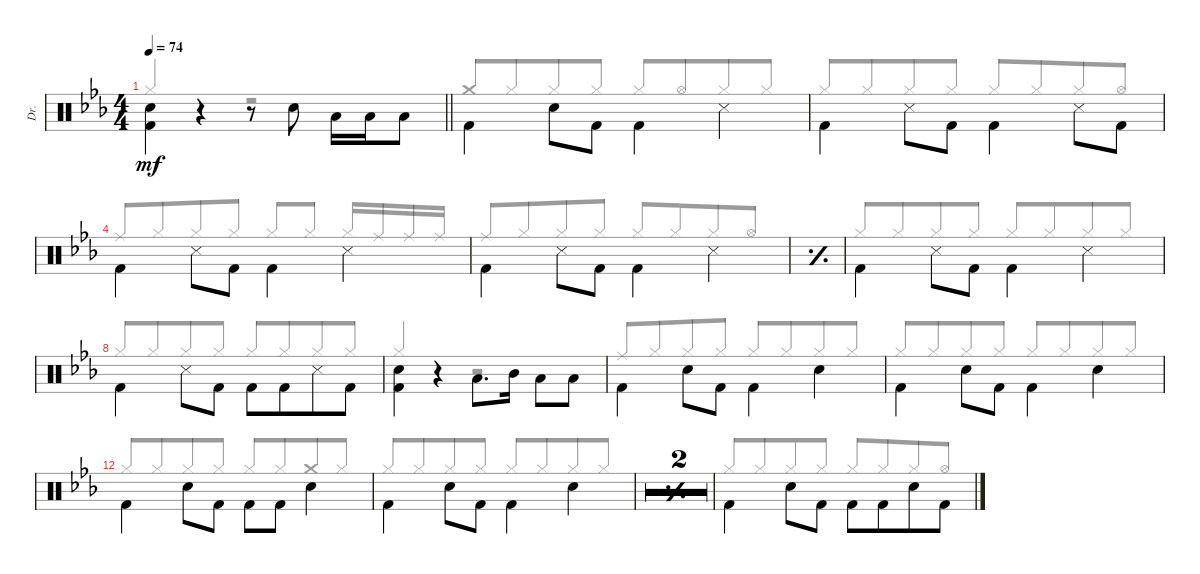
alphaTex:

\bracketExtendMode groupsimilarinstruments
\otherSystemsTrackNameOrientation horizontal
\defaultBarNumberDisplay FirstOfSystem
\track ("Drums" "Dr.") {multiBarRest instrument percussion}
\staff {score}
\articulation defaults
\voice
\ts (4 4)
\tempo 74
\clef neutral
\barLineRight lightlight
\ks eb
("Kick (hit) 2"{acc forcenatural} "Snare (hit) 2"{acc forcenatural}).4{dy mf beam Down} r.4{beam Down} r.8{beam Down} "Snare (hit) 2"{acc forcenatural}.8{beam Down} "Low Tom (hit)"{acc forcenatural}.16{beam Down} "Low Tom (hit)"{acc forcenatural}.16{beam Down} "Low Tom (hit)"{acc forcenatural}.8{beam Down} |
"Kick (hit) 2"{acc forcenatural}.4{beam Down} "Snare (hit) 2"{acc forcenatural}.8{beam Down} "Kick (hit) 2"{acc forcenatural}.8{beam Down} "Kick (hit) 2"{acc forcenatural}.4{beam Down} "Snare (side stick) 3"{acc forcenatural}.4{beam Down} |
"Kick (hit) 2"{acc forcenatural}.4{beam Down} "Snare (side stick) 3"{acc forcenatural}.8{beam Down} "Kick (hit) 2"{acc forcenatural}.8{beam Down} "Kick (hit) 2"{acc forcenatural}.4{beam Down} "Snare (side stick) 3"{acc forcenatural}.8{beam Down} "Kick (hit) 2"{acc forcenatural}.8{beam Down} |
"Kick (hit) 2"{acc forcenatural}.4{beam Down} "Snare (side stick) 3"{acc forcenatural}.8{beam Down} "Kick (hit) 2"{acc forcenatural}.8{beam Down} "Kick (hit) 2"{acc forcenatural}.4{beam Down} "Snare (side stick) 3"{acc forcenatural}.4{beam Down} |
"Kick (hit) 2"{acc forcenatural}.4{beam Down} "Snare (side stick) 3"{acc forcenatural}.8{beam Down} "Kick (hit) 2"{acc forcenatural}.8{beam Down} "Kick (hit) 2"{acc forcenatural}.4{beam Down} "Snare (side stick) 3"{acc forcenatural}.4{beam Down} |
\simile simple
|
\simile none "Kick (hit) 2"{acc forcenatural}.4{beam Down} "Snare (side stick) 3"{acc forcenatural}.8{beam Down} "Kick (hit) 2"{acc forcenatural}.8{beam Down} "Kick (hit) 2"{acc forcenatural}.4{beam Down} "Snare (side stick) 3"{acc forcenatural}.4{beam Down}
|
"Kick (hit) 2"{acc forcenatural}.4{beam Down} "Snare (side stick) 3"{acc forcenatural}.8{beam Down} "Kick (hit) 2"{acc forcenatural}.8{beam Down} "Kick (hit) 2"{acc forcenatural}.8{beam Down} "Kick (hit) 2"{acc forcenatural}.8{beam Down beam merge} "Snare (side stick) 3"{acc forcenatural}.8{beam Down} "Kick (hit) 2"{acc forcenatural}.8{beam Down} |
("Kick (hit) 2"{acc forcenatural} "Snare (hit) 2"{acc forcenatural}).4{beam Down} r.4{beam Down} "Low Tom (hit)"{acc forcenatural}.8{d beam Down} "Mid Tom (hit)"{acc forcenatural}.16{beam Down} "Low Tom (hit)"{acc forcenatural}.8{beam Down} "Low Tom (hit)"{acc forcenatural}.8{beam Down} |
"Kick (hit) 2"{acc forcenatural}.4{beam Down} "Snare (hit) 2"{acc forcenatural}.8{beam Down} "Kick (hit) 2"{acc forcenatural}.8{beam Down} "Kick (hit) 2"{acc forcenatural}.4{beam Down} "Snare (hit) 2"{acc forcenatural}.4{beam Down} |
"Kick (hit) 2"{acc forcenatural}.4{beam Down} "Snare (hit) 2"{acc forcenatural}.8{beam Down} "Kick (hit) 2"{acc forcenatural}.8{beam Down} "Kick (hit) 2"{acc forcenatural}.4{beam Down} "Snare (hit) 2"{acc forcenatural}.4{beam Down} |
"Kick (hit) 2"{acc forcenatural}.4{beam Down} "Snare (hit) 2"{acc forcenatural}.8{beam Down} "Kick (hit) 2"{acc forcenatural}.8{beam Down} "Kick (hit) 2"{acc forcenatural}.8{beam Down} "Kick (hit) 2"{acc forcenatural}.8{beam Down} "Snare (hit) 2"{acc forcenatural}.4{beam Down} |
"Kick (hit) 2"{acc forcenatural}.4{beam Down} "Snare (hit) 2"{acc forcenatural}.8{beam Down} "Kick (hit) 2"{acc forcenatural}.8{beam Down} "Kick (hit) 2"{acc forcenatural}.4{beam Down} "Snare (hit) 2"{acc forcenatural}.4{beam Down} |
\simile simple
|
|
\simile none "Kick (hit) 2"{acc forcenatural}.4{beam Down} "Snare (hit) 2"{acc forcenatural}.8{beam Down} "Kick (hit) 2"{acc forcenatural}.8{beam Down} "Kick (hit) 2"{acc forcenatural}.8{beam Down} "Kick (hit) 2"{acc forcenatural}.8{beam Down beam merge} "Snare (hit) 2"{acc forcenatural}.8{beam Down} "Kick (hit) 2"{acc forcenatural}.8{beam Down}
\voice
\clef neutral
\ottava regular
\simile none
\barLineRight lightlight
\ks eb "Hi-Hat (closed)"{acc forcenatural}.4{dy mf beam Up}
r.4{beam Down} r.2{beam Down} |
"Crash medium (hit)"{acc forcenatural}.8{beam Up} "Hi-Hat (closed)"{acc forcenatural}.8{beam Up beam merge} "Hi-Hat (closed)"{acc forcenatural}.8{beam Up} "Hi-Hat (closed)"{acc forcenatural}.8{beam Up} "Hi-Hat (closed)"{acc forcenatural}.8{beam Up} "Hi-Hat (open)"{acc forcenatural}.8{beam Up beam merge} "Hi-Hat (closed)"{acc forcenatural}.8{beam Up} "Hi-Hat (closed)"{acc forcenatural}.8{beam Up} |
"Hi-Hat (closed)"{acc forcenatural}.8{beam Up} "Hi-Hat (closed)"{acc forcenatural}.8{beam Up beam merge} "Hi-Hat (closed)"{acc forcenatural}.8{beam Up} "Hi-Hat (closed)"{acc forcenatural}.8{beam Up} "Hi-Hat (closed)"{acc forcenatural}.8{beam Up} "Hi-Hat (closed)"{acc forcenatural}.8{beam Up beam merge} "Hi-Hat (closed)"{acc forcenatural}.8{beam Up} "Hi-Hat (open)"{acc forcenatural}.8{beam Up} |
"Ride (middle)"{acc forcenatural}.8{beam Up beam merge} "Hi-Hat (closed)"{acc forcenatural}.8{beam Up beam merge} "Hi-Hat (closed)"{acc forcenatural}.8{beam Up} "Hi-Hat (closed)"{acc forcenatural}.8{beam Up} "Hi-Hat (closed)"{acc forcenatural}.8{beam Up} "Hi-Hat (closed)"{acc forcenatural}.8{beam Up beam split} "Hi-Hat (closed)"{acc forcenatural}.16{beam Up} "Ride (middle)"{acc forcenatural}.16{beam Up} "Ride (middle)"{acc forcenatural}.16{beam Up} "Ride (middle)"{acc forcenatural}.16{beam Up} |
"Ride (middle)"{acc forcenatural}.8{beam Up} "Hi-Hat (closed)"{acc forcenatural}.8{beam Up beam merge} "Hi-Hat (closed)"{acc forcenatural}.8{beam Up} "Hi-Hat (closed)"{acc forcenatural}.8{beam Up} "Hi-Hat (closed)"{acc forcenatural}.8{beam Up} "Hi-Hat (closed)"{acc forcenatural}.8{beam Up beam merge} "Hi-Hat (closed)"{acc forcenatural}.8{beam Up} "Hi-Hat (open)"{acc forcenatural}.8{beam Up} |
\simile simple
|
\simile none "Hi-Hat (closed)"{acc forcenatural}.8{beam Up} "Hi-Hat (closed)"{acc forcenatural}.8{beam Up beam merge} "Hi-Hat (closed)"{acc forcenatural}.8{beam Up} "Hi-Hat (closed)"{acc forcenatural}.8{beam Up} "Hi-Hat (closed)"{acc forcenatural}.8{beam Up} "Hi-Hat (closed)"{acc forcenatural}.8{beam Up beam merge} "Hi-Hat (closed)"{acc forcenatural}.8{beam Up beam merge} "Hi-Hat (closed)"{acc forcenatural}.8{beam Up}
|
"Hi-Hat (closed)"{acc forcenatural}.8{beam Up beam merge} "Hi-Hat (closed)"{acc forcenatural}.8{beam Up beam merge} "Hi-Hat (closed)"{acc forcenatural}.8{beam Up} "Hi-Hat (closed)"{acc forcenatural}.8{beam Up} "Hi-Hat (closed)"{acc forcenatural}.8{beam Up} "Hi-Hat (closed)"{acc forcenatural}.8{beam Up beam merge} "Hi-Hat (closed)"{acc forcenatural}.8{beam Up} "Hi-Hat (closed)"{acc forcenatural}.8{beam Up} |
"Hi-Hat (closed)"{acc forcenatural}.4{beam Up} r.4{beam Down} r.2{beam Up} |
"Ride (middle)"{acc forcenatural}.8{beam Up} "Hi-Hat (closed)"{acc forcenatural}.8{beam Up beam merge} "Hi-Hat (closed)"{acc forcenatural}.8{beam Up} "Hi-Hat (closed)"{acc forcenatural}.8{beam Up} "Hi-Hat (closed)"{acc forcenatural}.8{beam Up} "Hi-Hat (closed)"{acc forcenatural}.8{beam Up beam merge} "Hi-Hat (closed)"{acc forcenatural}.8{beam Up} "Hi-Hat (closed)"{acc forcenatural}.8{beam Up} |
"Hi-Hat (closed)"{acc forcenatural}.8{beam Up} "Hi-Hat (closed)"{acc forcenatural}.8{beam Up beam merge} "Hi-Hat (closed)"{acc forcenatural}.8{beam Up} "Hi-Hat (closed)"{acc forcenatural}.8{beam Up} "Hi-Hat (closed)"{acc forcenatural}.8{beam Up} "Hi-Hat (closed)"{acc forcenatural}.8{beam Up beam merge} "Hi-Hat (closed)"{acc forcenatural}.8{beam Up} "Hi-Hat (closed)"{acc forcenatural}.8{beam Up} |
"Hi-Hat (closed)"{acc forcenatural}.8{beam Up} "Hi-Hat (closed)"{acc forcenatural}.8{beam Up beam merge} "Hi-Hat (closed)"{acc forcenatural}.8{beam Up} "Hi-Hat (closed)"{acc forcenatural}.8{beam Up} "Hi-Hat (closed)"{acc forcenatural}.8{beam Up} "Hi-Hat (closed)"{acc forcenatural}.8{beam Up beam merge} "Crash medium (hit)"{acc forcenatural}.8{beam Up beam merge} "Hi-Hat (closed)"{acc forcenatural}.8{beam Up} |
"Hi-Hat (closed)"{acc forcenatural}.8{beam Up beam merge} "Hi-Hat (closed)"{acc forcenatural}.8{beam Up beam merge} "Hi-Hat (closed)"{acc forcenatural}.8{beam Up} "Hi-Hat (closed)"{acc forcenatural}.8{beam Up} "Hi-Hat (closed)"{acc forcenatural}.8{beam Up} "Hi-Hat (closed)"{acc forcenatural}.8{beam Up beam merge} "Hi-Hat (closed)"{acc forcenatural}.8{beam Up} "Hi-Hat (closed)"{acc forcenatural}.8{beam Up} |
\simile simple
|
|
\simile none "Hi-Hat (closed)"{acc forcenatural}.8{beam Up} "Hi-Hat (closed)"{acc forcenatural}.8{beam Up beam merge} "Hi-Hat (closed)"{acc forcenatural}.8{beam Up} "Hi-Hat (closed)"{acc forcenatural}.8{beam Up} "Hi-Hat (closed)"{acc forcenatural}.8{beam Up} "Hi-Hat (closed)"{acc forcenatural}.8{beam Up beam merge} "Hi-Hat (closed)"{acc forcenatural}.8{beam Up} "Hi-Hat (open)"{acc forcenatural}.8{beam Up}
